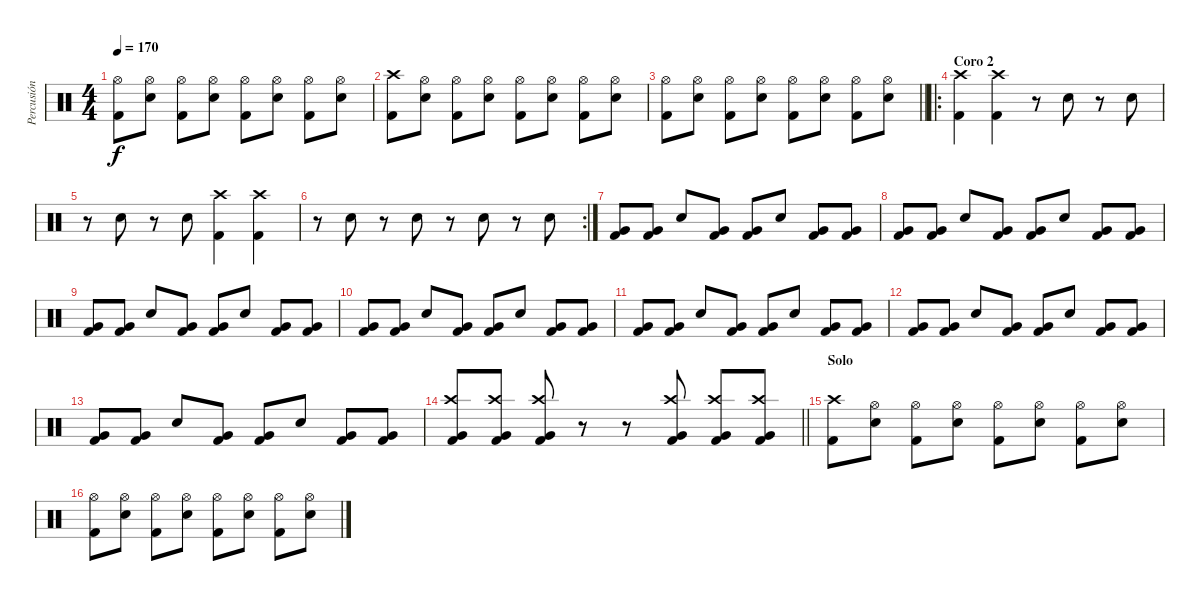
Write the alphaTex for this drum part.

\track ("Percusión" "Percusión") {instrument percussion}
\staff {score}
\articulation defaults
\ts (4 4)
\tempo 170
\clef neutral
\ks c
("Hi-Hat (open)" "Kick (hit) 2").8{dy f} ("Hi-Hat (open)" "Electric Snare (hit)").8 ("Hi-Hat (open)" "Kick (hit) 2").8 ("Hi-Hat (open)" "Electric Snare (hit)").8 ("Hi-Hat (open)" "Kick (hit) 2").8 ("Hi-Hat (open)" "Electric Snare (hit)").8 ("Hi-Hat (open)" "Kick (hit) 2").8 ("Hi-Hat (open)" "Electric Snare (hit)").8 |
("Crash high (hit)" "Kick (hit) 2").8 ("Hi-Hat (open)" "Electric Snare (hit)").8 ("Hi-Hat (open)" "Kick (hit) 2").8 ("Hi-Hat (open)" "Electric Snare (hit)").8 ("Hi-Hat (open)" "Kick (hit) 2").8 ("Hi-Hat (open)" "Electric Snare (hit)").8 ("Hi-Hat (open)" "Kick (hit) 2").8 ("Hi-Hat (open)" "Electric Snare (hit)").8 |
\barLineRight lightlight
("Hi-Hat (open)" "Kick (hit) 2").8 ("Hi-Hat (open)" "Electric Snare (hit)").8 ("Hi-Hat (open)" "Kick (hit) 2").8 ("Hi-Hat (open)" "Electric Snare (hit)").8 ("Hi-Hat (open)" "Kick (hit) 2").8 ("Hi-Hat (open)" "Electric Snare (hit)").8 ("Hi-Hat (open)" "Kick (hit) 2").8 ("Hi-Hat (open)" "Electric Snare (hit)").8 |
\ro
\section ("" "Coro 2")
("Crash high (hit)" "Kick (hit) 2").4 ("Crash high (hit)" "Kick (hit) 2").4 r.8 "Electric Snare (hit)".8 r.8 "Electric Snare (hit)".8 |
r.8 "Electric Snare (hit)".8 r.8 "Electric Snare (hit)".8 ("Crash high (hit)" "Kick (hit) 2").4 ("Crash high (hit)" "Kick (hit) 2").4 |
\rc 2
r.8 "Electric Snare (hit)".8 r.8 "Electric Snare (hit)".8 r.8 "Electric Snare (hit)".8 r.8 "Electric Snare (hit)".8 |
("Very Low Tom (hit)" "Kick (hit) 2").8 ("Very Low Tom (hit)" "Kick (hit) 2").8 "Electric Snare (hit)".8 ("Very Low Tom (hit)" "Kick (hit) 2").8 ("Very Low Tom (hit)" "Kick (hit) 2").8 "Electric Snare (hit)".8 ("Very Low Tom (hit)" "Kick (hit) 2").8 ("Very Low Tom (hit)" "Kick (hit) 2").8 |
("Very Low Tom (hit)" "Kick (hit) 2").8 ("Very Low Tom (hit)" "Kick (hit) 2").8 "Electric Snare (hit)".8 ("Very Low Tom (hit)" "Kick (hit) 2").8 ("Very Low Tom (hit)" "Kick (hit) 2").8 "Electric Snare (hit)".8 ("Very Low Tom (hit)" "Kick (hit) 2").8 ("Very Low Tom (hit)" "Kick (hit) 2").8 |
("Very Low Tom (hit)" "Kick (hit) 2").8 ("Very Low Tom (hit)" "Kick (hit) 2").8 "Electric Snare (hit)".8 ("Very Low Tom (hit)" "Kick (hit) 2").8 ("Very Low Tom (hit)" "Kick (hit) 2").8 "Electric Snare (hit)".8 ("Very Low Tom (hit)" "Kick (hit) 2").8 ("Very Low Tom (hit)" "Kick (hit) 2").8 |
("Very Low Tom (hit)" "Kick (hit) 2").8 ("Very Low Tom (hit)" "Kick (hit) 2").8 "Electric Snare (hit)".8 ("Very Low Tom (hit)" "Kick (hit) 2").8 ("Very Low Tom (hit)" "Kick (hit) 2").8 "Electric Snare (hit)".8 ("Very Low Tom (hit)" "Kick (hit) 2").8 ("Very Low Tom (hit)" "Kick (hit) 2").8 |
("Very Low Tom (hit)" "Kick (hit) 2").8 ("Very Low Tom (hit)" "Kick (hit) 2").8 "Electric Snare (hit)".8 ("Very Low Tom (hit)" "Kick (hit) 2").8 ("Very Low Tom (hit)" "Kick (hit) 2").8 "Electric Snare (hit)".8 ("Very Low Tom (hit)" "Kick (hit) 2").8 ("Very Low Tom (hit)" "Kick (hit) 2").8 |
("Very Low Tom (hit)" "Kick (hit) 2").8 ("Very Low Tom (hit)" "Kick (hit) 2").8 "Electric Snare (hit)".8 ("Very Low Tom (hit)" "Kick (hit) 2").8 ("Very Low Tom (hit)" "Kick (hit) 2").8 "Electric Snare (hit)".8 ("Very Low Tom (hit)" "Kick (hit) 2").8 ("Very Low Tom (hit)" "Kick (hit) 2").8 |
("Very Low Tom (hit)" "Kick (hit) 2").8 ("Very Low Tom (hit)" "Kick (hit) 2").8 "Electric Snare (hit)".8 ("Very Low Tom (hit)" "Kick (hit) 2").8 ("Very Low Tom (hit)" "Kick (hit) 2").8 "Electric Snare (hit)".8 ("Very Low Tom (hit)" "Kick (hit) 2").8 ("Very Low Tom (hit)" "Kick (hit) 2").8 |
\barLineRight lightlight
("Crash high (hit)" "Very Low Tom (hit)" "Kick (hit) 2").8 ("Crash high (hit)" "Very Low Tom (hit)" "Kick (hit) 2").8 ("Crash high (hit)" "Very Low Tom (hit)" "Kick (hit) 2").8 r.8 r.8 ("Crash high (hit)" "Very Low Tom (hit)" "Kick (hit) 2").8 ("Crash high (hit)" "Very Low Tom (hit)" "Kick (hit) 2").8 ("Crash high (hit)" "Very Low Tom (hit)" "Kick (hit) 2").8 |
\section ("" "Solo")
("Crash high (hit)" "Kick (hit) 2").8 ("Hi-Hat (open)" "Electric Snare (hit)").8 ("Hi-Hat (open)" "Kick (hit) 2").8 ("Hi-Hat (open)" "Electric Snare (hit)").8 ("Hi-Hat (open)" "Kick (hit) 2").8 ("Hi-Hat (open)" "Electric Snare (hit)").8 ("Hi-Hat (open)" "Kick (hit) 2").8 ("Hi-Hat (open)" "Electric Snare (hit)").8 |
("Hi-Hat (open)" "Kick (hit) 2").8 ("Hi-Hat (open)" "Electric Snare (hit)").8 ("Hi-Hat (open)" "Kick (hit) 2").8 ("Hi-Hat (open)" "Electric Snare (hit)").8 ("Hi-Hat (open)" "Kick (hit) 2").8 ("Hi-Hat (open)" "Electric Snare (hit)").8 ("Hi-Hat (open)" "Kick (hit) 2").8 ("Hi-Hat (open)" "Electric Snare (hit)").8
